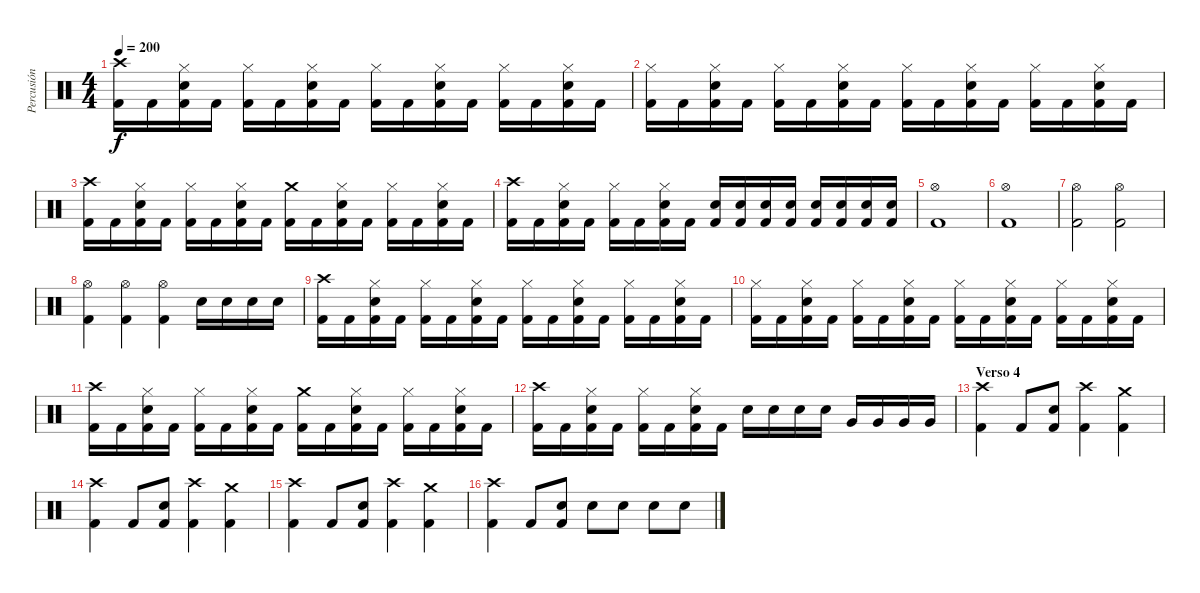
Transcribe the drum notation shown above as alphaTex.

\track ("Percusión" "Percusión") {instrument percussion}
\staff {score}
\articulation defaults
\ts (4 4)
\tempo 200
\clef neutral
\ks c
("Kick (hit) 2" "Crash high (hit)").16{dy f} "Kick (hit) 2".16 ("Kick (hit) 2" "Hi-Hat (closed)" "Snare (hit) 2").16 "Kick (hit) 2".16 ("Kick (hit) 2" "Hi-Hat (closed)").16 "Kick (hit) 2".16 ("Kick (hit) 2" "Hi-Hat (closed)" "Snare (hit) 2").16 "Kick (hit) 2".16 ("Kick (hit) 2" "Hi-Hat (closed)").16 "Kick (hit) 2".16 ("Kick (hit) 2" "Hi-Hat (closed)" "Snare (hit) 2").16 "Kick (hit) 2".16 ("Kick (hit) 2" "Hi-Hat (closed)").16 "Kick (hit) 2".16 ("Kick (hit) 2" "Hi-Hat (closed)" "Snare (hit) 2").16 "Kick (hit) 2".16 |
("Kick (hit) 2" "Hi-Hat (closed)").16 "Kick (hit) 2".16 ("Kick (hit) 2" "Hi-Hat (closed)" "Snare (hit) 2").16 "Kick (hit) 2".16 ("Kick (hit) 2" "Hi-Hat (closed)").16 "Kick (hit) 2".16 ("Kick (hit) 2" "Hi-Hat (closed)" "Snare (hit) 2").16 "Kick (hit) 2".16 ("Kick (hit) 2" "Hi-Hat (closed)").16 "Kick (hit) 2".16 ("Kick (hit) 2" "Hi-Hat (closed)" "Snare (hit) 2").16 "Kick (hit) 2".16 ("Kick (hit) 2" "Hi-Hat (closed)").16 "Kick (hit) 2".16 ("Kick (hit) 2" "Hi-Hat (closed)" "Snare (hit) 2").16 "Kick (hit) 2".16 |
("Kick (hit) 2" "Crash high (hit)").16 "Kick (hit) 2".16 ("Kick (hit) 2" "Hi-Hat (closed)" "Snare (hit) 2").16 "Kick (hit) 2".16 ("Kick (hit) 2" "Hi-Hat (closed)").16 "Kick (hit) 2".16 ("Kick (hit) 2" "Hi-Hat (closed)" "Snare (hit) 2").16 "Kick (hit) 2".16 ("Kick (hit) 2" "Crash medium (hit)").16 "Kick (hit) 2".16 ("Kick (hit) 2" "Hi-Hat (closed)" "Snare (hit) 2").16 "Kick (hit) 2".16 ("Kick (hit) 2" "Hi-Hat (closed)").16 "Kick (hit) 2".16 ("Kick (hit) 2" "Hi-Hat (closed)" "Snare (hit) 2").16 "Kick (hit) 2".16 |
("Kick (hit) 2" "Crash high (hit)").16 "Kick (hit) 2".16 ("Kick (hit) 2" "Hi-Hat (closed)" "Snare (hit) 2").16 "Kick (hit) 2".16 ("Kick (hit) 2" "Hi-Hat (closed)").16 "Kick (hit) 2".16 ("Kick (hit) 2" "Hi-Hat (closed)" "Snare (hit) 2").16 "Kick (hit) 2".16 ("Kick (hit) 2" "Snare (hit) 2").16 ("Kick (hit) 2" "Snare (hit) 2").16 ("Kick (hit) 2" "Snare (hit) 2").16 ("Kick (hit) 2" "Snare (hit) 2").16 ("Kick (hit) 2" "Snare (hit) 2").16 ("Kick (hit) 2" "Snare (hit) 2").16 ("Kick (hit) 2" "Snare (hit) 2").16 ("Kick (hit) 2" "Snare (hit) 2").16 |
("Hi-Hat (open)" "Kick (hit) 2").1 |
("Hi-Hat (open)" "Kick (hit) 2").1 |
("Hi-Hat (open)" "Kick (hit) 2").2 ("Hi-Hat (open)" "Kick (hit) 2").2 |
("Hi-Hat (open)" "Kick (hit) 2").4 ("Hi-Hat (open)" "Kick (hit) 2").4 ("Hi-Hat (open)" "Kick (hit) 2").4 "Snare (hit) 2".16 "Snare (hit) 2".16 "Snare (hit) 2".16 "Snare (hit) 2".16 |
("Kick (hit) 2" "Crash high (hit)").16 "Kick (hit) 2".16 ("Kick (hit) 2" "Hi-Hat (closed)" "Snare (hit) 2").16 "Kick (hit) 2".16 ("Kick (hit) 2" "Hi-Hat (closed)").16 "Kick (hit) 2".16 ("Kick (hit) 2" "Hi-Hat (closed)" "Snare (hit) 2").16 "Kick (hit) 2".16 ("Kick (hit) 2" "Hi-Hat (closed)").16 "Kick (hit) 2".16 ("Kick (hit) 2" "Hi-Hat (closed)" "Snare (hit) 2").16 "Kick (hit) 2".16 ("Kick (hit) 2" "Hi-Hat (closed)").16 "Kick (hit) 2".16 ("Kick (hit) 2" "Hi-Hat (closed)" "Snare (hit) 2").16 "Kick (hit) 2".16 |
("Kick (hit) 2" "Hi-Hat (closed)").16 "Kick (hit) 2".16 ("Kick (hit) 2" "Hi-Hat (closed)" "Snare (hit) 2").16 "Kick (hit) 2".16 ("Kick (hit) 2" "Hi-Hat (closed)").16 "Kick (hit) 2".16 ("Kick (hit) 2" "Hi-Hat (closed)" "Snare (hit) 2").16 "Kick (hit) 2".16 ("Kick (hit) 2" "Hi-Hat (closed)").16 "Kick (hit) 2".16 ("Kick (hit) 2" "Hi-Hat (closed)" "Snare (hit) 2").16 "Kick (hit) 2".16 ("Kick (hit) 2" "Hi-Hat (closed)").16 "Kick (hit) 2".16 ("Kick (hit) 2" "Hi-Hat (closed)" "Snare (hit) 2").16 "Kick (hit) 2".16 |
("Kick (hit) 2" "Crash high (hit)").16 "Kick (hit) 2".16 ("Kick (hit) 2" "Hi-Hat (closed)" "Snare (hit) 2").16 "Kick (hit) 2".16 ("Kick (hit) 2" "Hi-Hat (closed)").16 "Kick (hit) 2".16 ("Kick (hit) 2" "Hi-Hat (closed)" "Snare (hit) 2").16 "Kick (hit) 2".16 ("Kick (hit) 2" "Crash medium (hit)").16 "Kick (hit) 2".16 ("Kick (hit) 2" "Hi-Hat (closed)" "Snare (hit) 2").16 "Kick (hit) 2".16 ("Kick (hit) 2" "Hi-Hat (closed)").16 "Kick (hit) 2".16 ("Kick (hit) 2" "Hi-Hat (closed)" "Snare (hit) 2").16 "Kick (hit) 2".16 |
("Kick (hit) 2" "Crash high (hit)").16 "Kick (hit) 2".16 ("Kick (hit) 2" "Hi-Hat (closed)" "Snare (hit) 2").16 "Kick (hit) 2".16 ("Kick (hit) 2" "Hi-Hat (closed)").16 "Kick (hit) 2".16 ("Kick (hit) 2" "Hi-Hat (closed)" "Snare (hit) 2").16 "Kick (hit) 2".16 "Snare (hit) 2".16 "Snare (hit) 2".16 "Snare (hit) 2".16 "Snare (hit) 2".16 "Very Low Tom (hit)".16 "Very Low Tom (hit)".16 "Very Low Tom (hit)".16 "Very Low Tom (hit)".16 |
\section ("" "Verso 4")
("Crash high (hit)" "Kick (hit) 2").4 "Kick (hit) 2".8 ("Kick (hit) 2" "Snare (hit) 2").8 ("Crash high (hit)" "Kick (hit) 2").4 ("Crash medium (hit)" "Kick (hit) 2").4 |
("Crash high (hit)" "Kick (hit) 2").4 "Kick (hit) 2".8 ("Kick (hit) 2" "Snare (hit) 2").8 ("Crash high (hit)" "Kick (hit) 2").4 ("Crash medium (hit)" "Kick (hit) 2").4 |
("Crash high (hit)" "Kick (hit) 2").4 "Kick (hit) 2".8 ("Kick (hit) 2" "Snare (hit) 2").8 ("Crash high (hit)" "Kick (hit) 2").4 ("Crash medium (hit)" "Kick (hit) 2").4 |
("Crash high (hit)" "Kick (hit) 2").4 "Kick (hit) 2".8 ("Kick (hit) 2" "Snare (hit) 2").8 "Snare (hit) 2".8 "Snare (hit) 2".8 "Snare (hit) 2".8 "Snare (hit) 2".8
